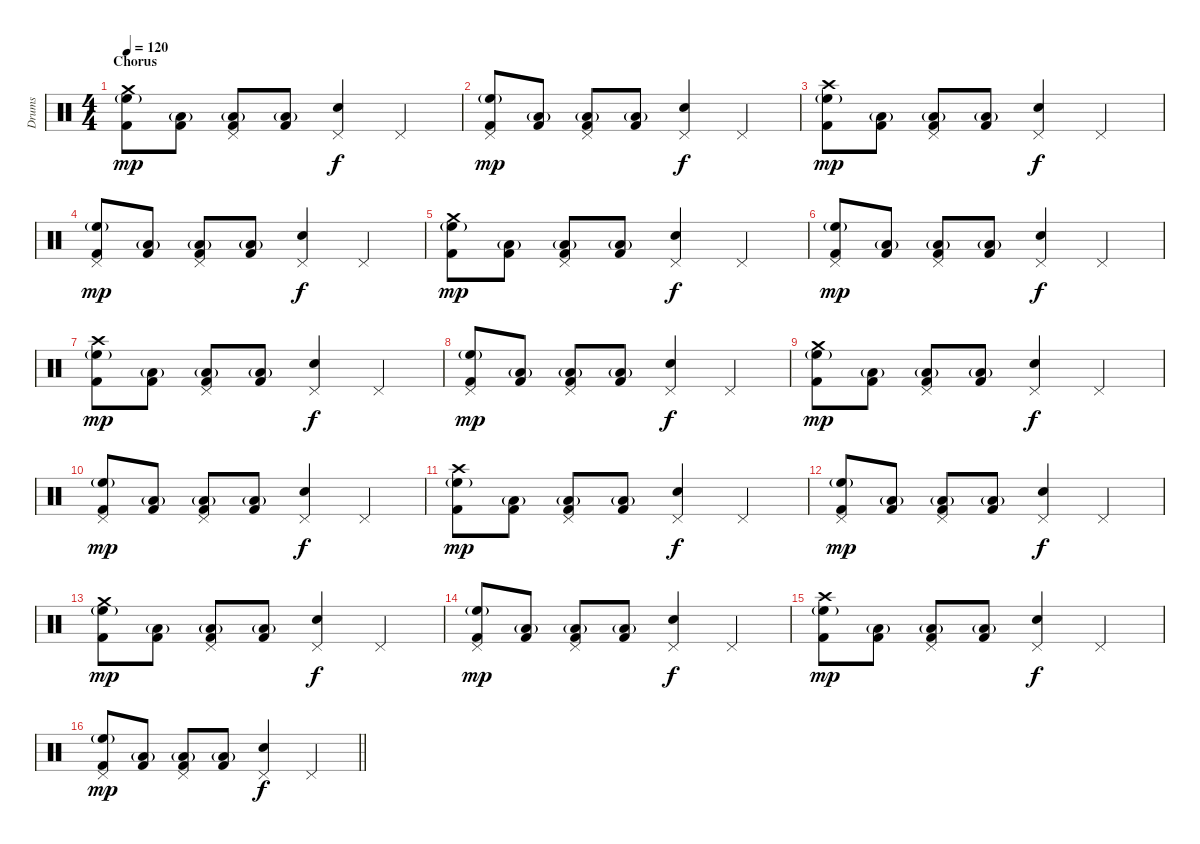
\track ("Drums" "Drums") {instrument percussion}
\staff {score}
\articulation defaults
\ts (4 4)
\section ("" "Chorus")
\tempo 120
\clef neutral
\ks c
("Crash medium (hit)" "High Floor Tom (hit)"{g} "Kick (hit) 2").8{dy mp} ("Low Tom (hit)"{g} "Kick (hit) 2").8 ("Pedal Hi-Hat (hit)" "Low Tom (hit)"{g} "Kick (hit) 2").8 ("Low Tom (hit)"{g} "Kick (hit) 2").8 ("Pedal Hi-Hat (hit)" "Electric Snare (hit)").4{dy f} "Pedal Hi-Hat (hit)".4 |
("Pedal Hi-Hat (hit)" "High Floor Tom (hit)"{g} "Kick (hit) 2").8{dy mp} ("Low Tom (hit)"{g} "Kick (hit) 2").8 ("Pedal Hi-Hat (hit)" "Low Tom (hit)"{g} "Kick (hit) 2").8 ("Low Tom (hit)"{g} "Kick (hit) 2").8 ("Pedal Hi-Hat (hit)" "Electric Snare (hit)").4{dy f} "Pedal Hi-Hat (hit)".4 |
("Crash high (hit)" "High Floor Tom (hit)"{g} "Kick (hit) 2").8{dy mp} ("Low Tom (hit)"{g} "Kick (hit) 2").8 ("Pedal Hi-Hat (hit)" "Low Tom (hit)"{g} "Kick (hit) 2").8 ("Low Tom (hit)"{g} "Kick (hit) 2").8 ("Pedal Hi-Hat (hit)" "Electric Snare (hit)").4{dy f} "Pedal Hi-Hat (hit)".4 |
("Pedal Hi-Hat (hit)" "High Floor Tom (hit)"{g} "Kick (hit) 2").8{dy mp} ("Low Tom (hit)"{g} "Kick (hit) 2").8 ("Pedal Hi-Hat (hit)" "Low Tom (hit)"{g} "Kick (hit) 2").8 ("Low Tom (hit)"{g} "Kick (hit) 2").8 ("Pedal Hi-Hat (hit)" "Electric Snare (hit)").4{dy f} "Pedal Hi-Hat (hit)".4 |
("Crash medium (hit)" "High Floor Tom (hit)"{g} "Kick (hit) 2").8{dy mp} ("Low Tom (hit)"{g} "Kick (hit) 2").8 ("Pedal Hi-Hat (hit)" "Low Tom (hit)"{g} "Kick (hit) 2").8 ("Low Tom (hit)"{g} "Kick (hit) 2").8 ("Pedal Hi-Hat (hit)" "Electric Snare (hit)").4{dy f} "Pedal Hi-Hat (hit)".4 |
("Pedal Hi-Hat (hit)" "High Floor Tom (hit)"{g} "Kick (hit) 2").8{dy mp} ("Low Tom (hit)"{g} "Kick (hit) 2").8 ("Pedal Hi-Hat (hit)" "Low Tom (hit)"{g} "Kick (hit) 2").8 ("Low Tom (hit)"{g} "Kick (hit) 2").8 ("Pedal Hi-Hat (hit)" "Electric Snare (hit)").4{dy f} "Pedal Hi-Hat (hit)".4 |
("Crash high (hit)" "High Floor Tom (hit)"{g} "Kick (hit) 2").8{dy mp} ("Low Tom (hit)"{g} "Kick (hit) 2").8 ("Pedal Hi-Hat (hit)" "Low Tom (hit)"{g} "Kick (hit) 2").8 ("Low Tom (hit)"{g} "Kick (hit) 2").8 ("Pedal Hi-Hat (hit)" "Electric Snare (hit)").4{dy f} "Pedal Hi-Hat (hit)".4 |
("Pedal Hi-Hat (hit)" "High Floor Tom (hit)"{g} "Kick (hit) 2").8{dy mp} ("Low Tom (hit)"{g} "Kick (hit) 2").8 ("Pedal Hi-Hat (hit)" "Low Tom (hit)"{g} "Kick (hit) 2").8 ("Low Tom (hit)"{g} "Kick (hit) 2").8 ("Pedal Hi-Hat (hit)" "Electric Snare (hit)").4{dy f} "Pedal Hi-Hat (hit)".4 |
("Crash medium (hit)" "High Floor Tom (hit)"{g} "Kick (hit) 2").8{dy mp} ("Low Tom (hit)"{g} "Kick (hit) 2").8 ("Pedal Hi-Hat (hit)" "Low Tom (hit)"{g} "Kick (hit) 2").8 ("Low Tom (hit)"{g} "Kick (hit) 2").8 ("Pedal Hi-Hat (hit)" "Electric Snare (hit)").4{dy f} "Pedal Hi-Hat (hit)".4 |
("Pedal Hi-Hat (hit)" "High Floor Tom (hit)"{g} "Kick (hit) 2").8{dy mp} ("Low Tom (hit)"{g} "Kick (hit) 2").8 ("Pedal Hi-Hat (hit)" "Low Tom (hit)"{g} "Kick (hit) 2").8 ("Low Tom (hit)"{g} "Kick (hit) 2").8 ("Pedal Hi-Hat (hit)" "Electric Snare (hit)").4{dy f} "Pedal Hi-Hat (hit)".4 |
("Crash high (hit)" "High Floor Tom (hit)"{g} "Kick (hit) 2").8{dy mp} ("Low Tom (hit)"{g} "Kick (hit) 2").8 ("Pedal Hi-Hat (hit)" "Low Tom (hit)"{g} "Kick (hit) 2").8 ("Low Tom (hit)"{g} "Kick (hit) 2").8 ("Pedal Hi-Hat (hit)" "Electric Snare (hit)").4{dy f} "Pedal Hi-Hat (hit)".4 |
("Pedal Hi-Hat (hit)" "High Floor Tom (hit)"{g} "Kick (hit) 2").8{dy mp} ("Low Tom (hit)"{g} "Kick (hit) 2").8 ("Pedal Hi-Hat (hit)" "Low Tom (hit)"{g} "Kick (hit) 2").8 ("Low Tom (hit)"{g} "Kick (hit) 2").8 ("Pedal Hi-Hat (hit)" "Electric Snare (hit)").4{dy f} "Pedal Hi-Hat (hit)".4 |
("Crash medium (hit)" "High Floor Tom (hit)"{g} "Kick (hit) 2").8{dy mp} ("Low Tom (hit)"{g} "Kick (hit) 2").8 ("Pedal Hi-Hat (hit)" "Low Tom (hit)"{g} "Kick (hit) 2").8 ("Low Tom (hit)"{g} "Kick (hit) 2").8 ("Pedal Hi-Hat (hit)" "Electric Snare (hit)").4{dy f} "Pedal Hi-Hat (hit)".4 |
("Pedal Hi-Hat (hit)" "High Floor Tom (hit)"{g} "Kick (hit) 2").8{dy mp} ("Low Tom (hit)"{g} "Kick (hit) 2").8 ("Pedal Hi-Hat (hit)" "Low Tom (hit)"{g} "Kick (hit) 2").8 ("Low Tom (hit)"{g} "Kick (hit) 2").8 ("Pedal Hi-Hat (hit)" "Electric Snare (hit)").4{dy f} "Pedal Hi-Hat (hit)".4 |
("Crash high (hit)" "High Floor Tom (hit)"{g} "Kick (hit) 2").8{dy mp} ("Low Tom (hit)"{g} "Kick (hit) 2").8 ("Pedal Hi-Hat (hit)" "Low Tom (hit)"{g} "Kick (hit) 2").8 ("Low Tom (hit)"{g} "Kick (hit) 2").8 ("Pedal Hi-Hat (hit)" "Electric Snare (hit)").4{dy f} "Pedal Hi-Hat (hit)".4 |
\barLineRight lightlight
("Pedal Hi-Hat (hit)" "High Floor Tom (hit)"{g} "Kick (hit) 2").8{dy mp} ("Low Tom (hit)"{g} "Kick (hit) 2").8 ("Pedal Hi-Hat (hit)" "Low Tom (hit)"{g} "Kick (hit) 2").8 ("Low Tom (hit)"{g} "Kick (hit) 2").8 ("Pedal Hi-Hat (hit)" "Electric Snare (hit)").4{dy f} "Pedal Hi-Hat (hit)".4
